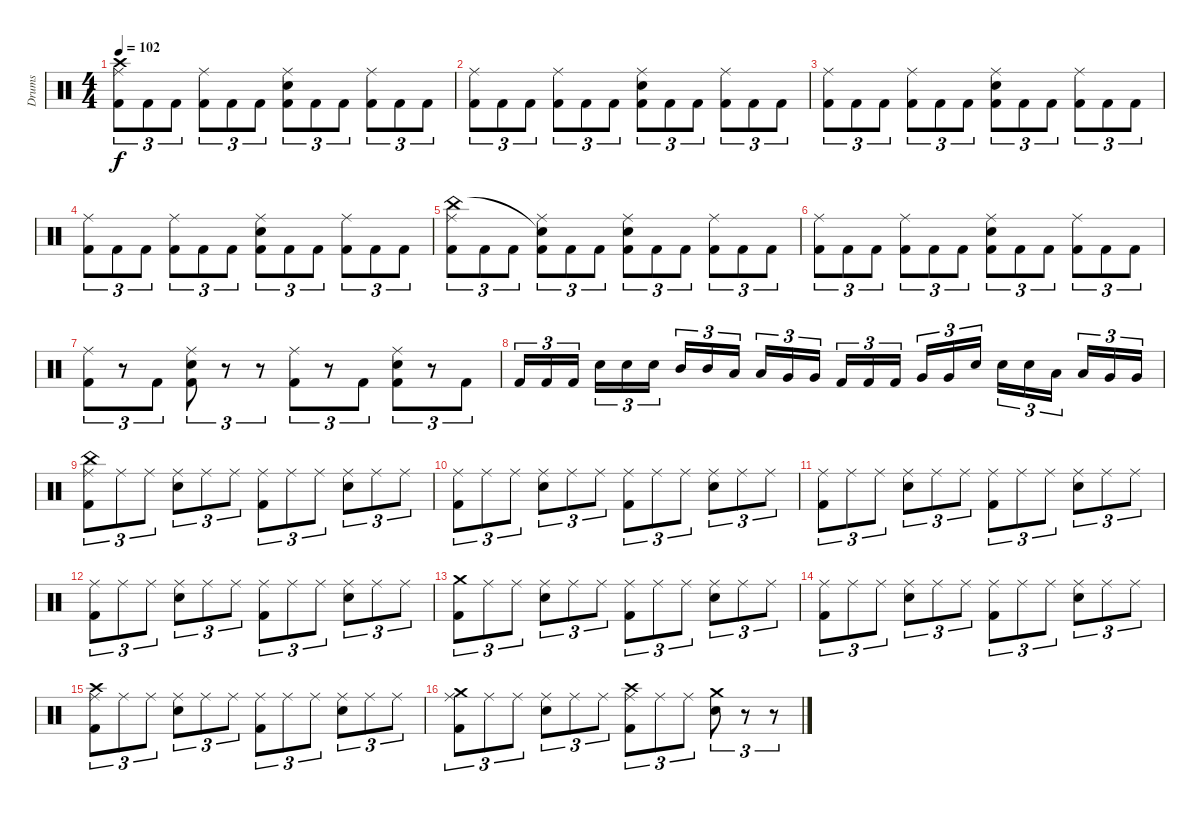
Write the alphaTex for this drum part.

\track ("Drums" "Drums") {instrument percussion}
\staff {score}
\articulation defaults
\ts (4 4)
\tempo 102
\clef neutral
\ks c
("Ride (middle)" "Crash high (hit)" "Kick (hit) 2").8{tu (3 2) dy f} "Kick (hit) 2".8{tu (3 2)} "Kick (hit) 2".8{tu (3 2)} ("Ride (middle)" "Kick (hit) 2").8{tu (3 2)} "Kick (hit) 2".8{tu (3 2)} "Kick (hit) 2".8{tu (3 2)} ("Ride (middle)" "Snare (hit) 2" "Kick (hit) 2").8{tu (3 2)} "Kick (hit) 2".8{tu (3 2)} "Kick (hit) 2".8{tu (3 2)} ("Ride (middle)" "Kick (hit) 2").8{tu (3 2)} "Kick (hit) 2".8{tu (3 2)} "Kick (hit) 2".8{tu (3 2)} |
("Ride (middle)" "Kick (hit) 2").8{tu (3 2)} "Kick (hit) 2".8{tu (3 2)} "Kick (hit) 2".8{tu (3 2)} ("Ride (middle)" "Kick (hit) 2").8{tu (3 2)} "Kick (hit) 2".8{tu (3 2)} "Kick (hit) 2".8{tu (3 2)} ("Ride (middle)" "Snare (hit) 2" "Kick (hit) 2").8{tu (3 2)} "Kick (hit) 2".8{tu (3 2)} "Kick (hit) 2".8{tu (3 2)} ("Ride (middle)" "Kick (hit) 2").8{tu (3 2)} "Kick (hit) 2".8{tu (3 2)} "Kick (hit) 2".8{tu (3 2)} |
("Ride (middle)" "Kick (hit) 2").8{tu (3 2)} "Kick (hit) 2".8{tu (3 2)} "Kick (hit) 2".8{tu (3 2)} ("Ride (middle)" "Kick (hit) 2").8{tu (3 2)} "Kick (hit) 2".8{tu (3 2)} "Kick (hit) 2".8{tu (3 2)} ("Ride (middle)" "Snare (hit) 2" "Kick (hit) 2").8{tu (3 2)} "Kick (hit) 2".8{tu (3 2)} "Kick (hit) 2".8{tu (3 2)} ("Ride (middle)" "Kick (hit) 2").8{tu (3 2)} "Kick (hit) 2".8{tu (3 2)} "Kick (hit) 2".8{tu (3 2)} |
("Ride (middle)" "Kick (hit) 2").8{tu (3 2)} "Kick (hit) 2".8{tu (3 2)} "Kick (hit) 2".8{tu (3 2)} ("Ride (middle)" "Kick (hit) 2").8{tu (3 2)} "Kick (hit) 2".8{tu (3 2)} "Kick (hit) 2".8{tu (3 2)} ("Ride (middle)" "Snare (hit) 2" "Kick (hit) 2").8{tu (3 2)} "Kick (hit) 2".8{tu (3 2)} "Kick (hit) 2".8{tu (3 2)} ("Ride (middle)" "Kick (hit) 2").8{tu (3 2)} "Kick (hit) 2".8{tu (3 2)} "Kick (hit) 2".8{tu (3 2)} |
("Ride (middle)" "China (hit)" "Kick (hit) 2").8{tu (3 2)} "Kick (hit) 2".8{tu (3 2)} "Kick (hit) 2".8{tu (3 2)} ("Ride (middle)" "Snare (hit)"{t} "Kick (hit) 2").8{tu (3 2)} "Kick (hit) 2".8{tu (3 2)} "Kick (hit) 2".8{tu (3 2)} ("Ride (middle)" "Snare (hit) 2" "Kick (hit) 2").8{tu (3 2)} "Kick (hit) 2".8{tu (3 2)} "Kick (hit) 2".8{tu (3 2)} ("Ride (middle)" "Kick (hit) 2").8{tu (3 2)} "Kick (hit) 2".8{tu (3 2)} "Kick (hit) 2".8{tu (3 2)} |
("Ride (middle)" "Kick (hit) 2").8{tu (3 2)} "Kick (hit) 2".8{tu (3 2)} "Kick (hit) 2".8{tu (3 2)} ("Ride (middle)" "Kick (hit) 2").8{tu (3 2)} "Kick (hit) 2".8{tu (3 2)} "Kick (hit) 2".8{tu (3 2)} ("Ride (middle)" "Snare (hit) 2" "Kick (hit) 2").8{tu (3 2)} "Kick (hit) 2".8{tu (3 2)} "Kick (hit) 2".8{tu (3 2)} ("Ride (middle)" "Kick (hit) 2").8{tu (3 2)} "Kick (hit) 2".8{tu (3 2)} "Kick (hit) 2".8{tu (3 2)} |
("Ride (middle)" "Kick (hit) 2").8{tu (3 2)} r.8{tu (3 2)} "Kick (hit) 2".8{tu (3 2)} ("Ride (middle)" "Snare (hit) 2" "Kick (hit) 2").8{tu (3 2)} r.8{tu (3 2)} r.8{tu (3 2)} ("Ride (middle)" "Kick (hit) 2").8{tu (3 2)} r.8{tu (3 2)} "Kick (hit) 2".8{tu (3 2)} ("Ride (middle)" "Snare (hit) 2" "Kick (hit) 2").8{tu (3 2)} r.8{tu (3 2)} "Kick (hit) 2".8{tu (3 2)} |
"Kick (hit) 2".16{tu (3 2)} "Kick (hit) 2".16{tu (3 2)} "Kick (hit) 2".16{tu (3 2)} "Snare (hit) 2".16{tu (3 2)} "Snare (hit) 2".16{tu (3 2)} "Snare (hit) 2".16{tu (3 2)} "Mid Tom (hit)".16{tu (3 2)} "Mid Tom (hit)".16{tu (3 2)} "Low Tom (hit)".16{tu (3 2)} "Low Tom (hit)".16{tu (3 2)} "Very Low Tom (hit)".16{tu (3 2)} "Very Low Tom (hit)".16{tu (3 2)} "Kick (hit) 2".16{tu (3 2)} "Kick (hit) 2".16{tu (3 2)} "Kick (hit) 2".16{tu (3 2)} "Very Low Tom (hit)".16{tu (3 2)} "Very Low Tom (hit)".16{tu (3 2)} "Snare (hit) 2".16{tu (3 2)} "Snare (hit) 2".16{tu (3 2)} "Snare (hit) 2".16{tu (3 2)} "Low Tom (hit)".16{tu (3 2)} "Low Tom (hit)".16{tu (3 2)} "Very Low Tom (hit)".16{tu (3 2)} "Very Low Tom (hit)".16{tu (3 2)} |
("Ride (middle)" "China (hit)" "Kick (hit) 2").8{tu (3 2)} "Ride (middle)".8{tu (3 2)} "Ride (middle)".8{tu (3 2)} ("Ride (middle)" "Snare (hit) 2").8{tu (3 2)} "Ride (middle)".8{tu (3 2)} "Ride (middle)".8{tu (3 2)} ("Ride (middle)" "Kick (hit) 2").8{tu (3 2)} "Ride (middle)".8{tu (3 2)} "Ride (middle)".8{tu (3 2)} ("Ride (middle)" "Snare (hit) 2").8{tu (3 2)} "Ride (middle)".8{tu (3 2)} "Ride (middle)".8{tu (3 2)} |
("Ride (middle)" "Kick (hit) 2").8{tu (3 2)} "Ride (middle)".8{tu (3 2)} "Ride (middle)".8{tu (3 2)} ("Ride (middle)" "Snare (hit) 2").8{tu (3 2)} "Ride (middle)".8{tu (3 2)} "Ride (middle)".8{tu (3 2)} ("Ride (middle)" "Kick (hit) 2").8{tu (3 2)} "Ride (middle)".8{tu (3 2)} "Ride (middle)".8{tu (3 2)} ("Ride (middle)" "Snare (hit) 2").8{tu (3 2)} "Ride (middle)".8{tu (3 2)} "Ride (middle)".8{tu (3 2)} |
("Ride (middle)" "Kick (hit) 2").8{tu (3 2)} "Ride (middle)".8{tu (3 2)} "Ride (middle)".8{tu (3 2)} ("Ride (middle)" "Snare (hit) 2").8{tu (3 2)} "Ride (middle)".8{tu (3 2)} "Ride (middle)".8{tu (3 2)} ("Ride (middle)" "Kick (hit) 2").8{tu (3 2)} "Ride (middle)".8{tu (3 2)} "Ride (middle)".8{tu (3 2)} ("Ride (middle)" "Snare (hit) 2").8{tu (3 2)} "Ride (middle)".8{tu (3 2)} "Ride (middle)".8{tu (3 2)} |
("Ride (middle)" "Kick (hit) 2").8{tu (3 2)} "Ride (middle)".8{tu (3 2)} "Ride (middle)".8{tu (3 2)} ("Ride (middle)" "Snare (hit) 2").8{tu (3 2)} "Ride (middle)".8{tu (3 2)} "Ride (middle)".8{tu (3 2)} ("Ride (middle)" "Kick (hit) 2").8{tu (3 2)} "Ride (middle)".8{tu (3 2)} "Ride (middle)".8{tu (3 2)} ("Ride (middle)" "Snare (hit) 2").8{tu (3 2)} "Ride (middle)".8{tu (3 2)} "Ride (middle)".8{tu (3 2)} |
("Crash medium (hit)" "Kick (hit) 2").8{tu (3 2)} "Ride (middle)".8{tu (3 2)} "Ride (middle)".8{tu (3 2)} ("Ride (middle)" "Snare (hit) 2").8{tu (3 2)} "Ride (middle)".8{tu (3 2)} "Ride (middle)".8{tu (3 2)} ("Ride (middle)" "Kick (hit) 2").8{tu (3 2)} "Ride (middle)".8{tu (3 2)} "Ride (middle)".8{tu (3 2)} ("Ride (middle)" "Snare (hit) 2").8{tu (3 2)} "Ride (middle)".8{tu (3 2)} "Ride (middle)".8{tu (3 2)} |
("Ride (middle)" "Kick (hit) 2").8{tu (3 2)} "Ride (middle)".8{tu (3 2)} "Ride (middle)".8{tu (3 2)} ("Ride (middle)" "Snare (hit) 2").8{tu (3 2)} "Ride (middle)".8{tu (3 2)} "Ride (middle)".8{tu (3 2)} ("Ride (middle)" "Kick (hit) 2").8{tu (3 2)} "Ride (middle)".8{tu (3 2)} "Ride (middle)".8{tu (3 2)} ("Ride (middle)" "Snare (hit) 2").8{tu (3 2)} "Ride (middle)".8{tu (3 2)} "Ride (middle)".8{tu (3 2)} |
("Crash high (hit)" "Ride (middle)" "Kick (hit) 2").8{tu (3 2)} "Ride (middle)".8{tu (3 2)} "Ride (middle)".8{tu (3 2)} ("Ride (middle)" "Snare (hit) 2").8{tu (3 2)} "Ride (middle)".8{tu (3 2)} "Ride (middle)".8{tu (3 2)} ("Ride (middle)" "Kick (hit) 2").8{tu (3 2)} "Ride (middle)".8{tu (3 2)} "Ride (middle)".8{tu (3 2)} ("Ride (middle)" "Snare (hit) 2").8{tu (3 2)} "Ride (middle)".8{tu (3 2)} "Ride (middle)".8{tu (3 2)} |
("Crash medium (hit)" "Ride (middle)" "Kick (hit) 2").8{tu (3 2)} "Ride (middle)".8{tu (3 2)} "Ride (middle)".8{tu (3 2)} ("Ride (middle)" "Snare (hit) 2").8{tu (3 2)} "Ride (middle)".8{tu (3 2)} "Ride (middle)".8{tu (3 2)} ("Crash high (hit)" "Ride (middle)" "Kick (hit) 2").8{tu (3 2)} "Ride (middle)".8{tu (3 2)} "Ride (middle)".8{tu (3 2)} ("Crash medium (hit)" "Snare (hit) 2").8{tu (3 2)} r.8{tu (3 2)} r.8{tu (3 2)}
